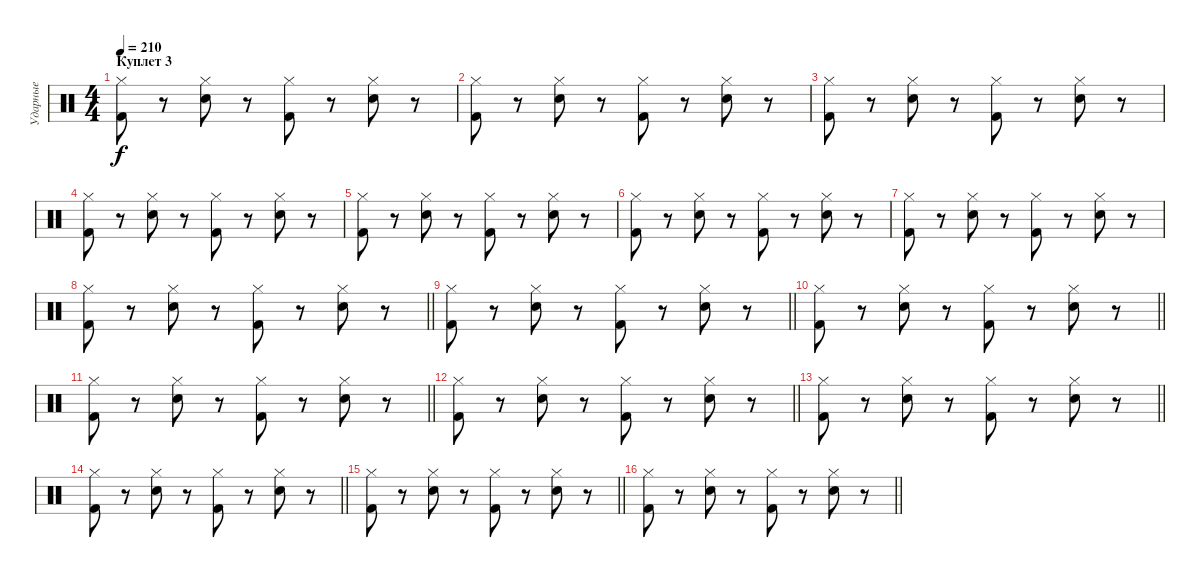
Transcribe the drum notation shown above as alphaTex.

\track ("Ударные" "Ударные") {instrument percussion}
\staff {score}
\articulation defaults
\ts (4 4)
\section ("" "Куплет 3")
\tempo 210
\clef neutral
\ks c
("Kick (hit) 2" "Hi-Hat (closed)").8{dy f} r.8 ("Snare (hit) 2" "Hi-Hat (closed)").8 r.8 ("Kick (hit) 2" "Hi-Hat (closed)").8 r.8 ("Snare (hit) 2" "Hi-Hat (closed)").8 r.8 |
("Kick (hit) 2" "Hi-Hat (closed)").8 r.8 ("Snare (hit) 2" "Hi-Hat (closed)").8 r.8 ("Kick (hit) 2" "Hi-Hat (closed)").8 r.8 ("Snare (hit) 2" "Hi-Hat (closed)").8 r.8 |
("Kick (hit) 2" "Hi-Hat (closed)").8 r.8 ("Snare (hit) 2" "Hi-Hat (closed)").8 r.8 ("Kick (hit) 2" "Hi-Hat (closed)").8 r.8 ("Snare (hit) 2" "Hi-Hat (closed)").8 r.8 |
("Kick (hit) 2" "Hi-Hat (closed)").8 r.8 ("Snare (hit) 2" "Hi-Hat (closed)").8 r.8 ("Kick (hit) 2" "Hi-Hat (closed)").8 r.8 ("Snare (hit) 2" "Hi-Hat (closed)").8 r.8 |
("Kick (hit) 2" "Hi-Hat (closed)").8 r.8 ("Snare (hit) 2" "Hi-Hat (closed)").8 r.8 ("Kick (hit) 2" "Hi-Hat (closed)").8 r.8 ("Snare (hit) 2" "Hi-Hat (closed)").8 r.8 |
("Kick (hit) 2" "Hi-Hat (closed)").8 r.8 ("Snare (hit) 2" "Hi-Hat (closed)").8 r.8 ("Kick (hit) 2" "Hi-Hat (closed)").8 r.8 ("Snare (hit) 2" "Hi-Hat (closed)").8 r.8 |
("Kick (hit) 2" "Hi-Hat (closed)").8 r.8 ("Snare (hit) 2" "Hi-Hat (closed)").8 r.8 ("Kick (hit) 2" "Hi-Hat (closed)").8 r.8 ("Snare (hit) 2" "Hi-Hat (closed)").8 r.8 |
\barLineRight lightlight
("Kick (hit) 2" "Hi-Hat (closed)").8 r.8 ("Snare (hit) 2" "Hi-Hat (closed)").8 r.8 ("Kick (hit) 2" "Hi-Hat (closed)").8 r.8 ("Snare (hit) 2" "Hi-Hat (closed)").8 r.8 |
\barLineRight lightlight
("Kick (hit) 2" "Hi-Hat (closed)").8 r.8 ("Snare (hit) 2" "Hi-Hat (closed)").8 r.8 ("Kick (hit) 2" "Hi-Hat (closed)").8 r.8 ("Snare (hit) 2" "Hi-Hat (closed)").8 r.8 |
\barLineRight lightlight
("Kick (hit) 2" "Hi-Hat (closed)").8 r.8 ("Snare (hit) 2" "Hi-Hat (closed)").8 r.8 ("Kick (hit) 2" "Hi-Hat (closed)").8 r.8 ("Snare (hit) 2" "Hi-Hat (closed)").8 r.8 |
\barLineRight lightlight
("Kick (hit) 2" "Hi-Hat (closed)").8 r.8 ("Snare (hit) 2" "Hi-Hat (closed)").8 r.8 ("Kick (hit) 2" "Hi-Hat (closed)").8 r.8 ("Snare (hit) 2" "Hi-Hat (closed)").8 r.8 |
\barLineRight lightlight
("Kick (hit) 2" "Hi-Hat (closed)").8 r.8 ("Snare (hit) 2" "Hi-Hat (closed)").8 r.8 ("Kick (hit) 2" "Hi-Hat (closed)").8 r.8 ("Snare (hit) 2" "Hi-Hat (closed)").8 r.8 |
\barLineRight lightlight
("Kick (hit) 2" "Hi-Hat (closed)").8 r.8 ("Snare (hit) 2" "Hi-Hat (closed)").8 r.8 ("Kick (hit) 2" "Hi-Hat (closed)").8 r.8 ("Snare (hit) 2" "Hi-Hat (closed)").8 r.8 |
\barLineRight lightlight
("Kick (hit) 2" "Hi-Hat (closed)").8 r.8 ("Snare (hit) 2" "Hi-Hat (closed)").8 r.8 ("Kick (hit) 2" "Hi-Hat (closed)").8 r.8 ("Snare (hit) 2" "Hi-Hat (closed)").8 r.8 |
\barLineRight lightlight
("Kick (hit) 2" "Hi-Hat (closed)").8 r.8 ("Snare (hit) 2" "Hi-Hat (closed)").8 r.8 ("Kick (hit) 2" "Hi-Hat (closed)").8 r.8 ("Snare (hit) 2" "Hi-Hat (closed)").8 r.8 |
\barLineRight lightlight
("Kick (hit) 2" "Hi-Hat (closed)").8 r.8 ("Snare (hit) 2" "Hi-Hat (closed)").8 r.8 ("Kick (hit) 2" "Hi-Hat (closed)").8 r.8 ("Snare (hit) 2" "Hi-Hat (closed)").8 r.8
